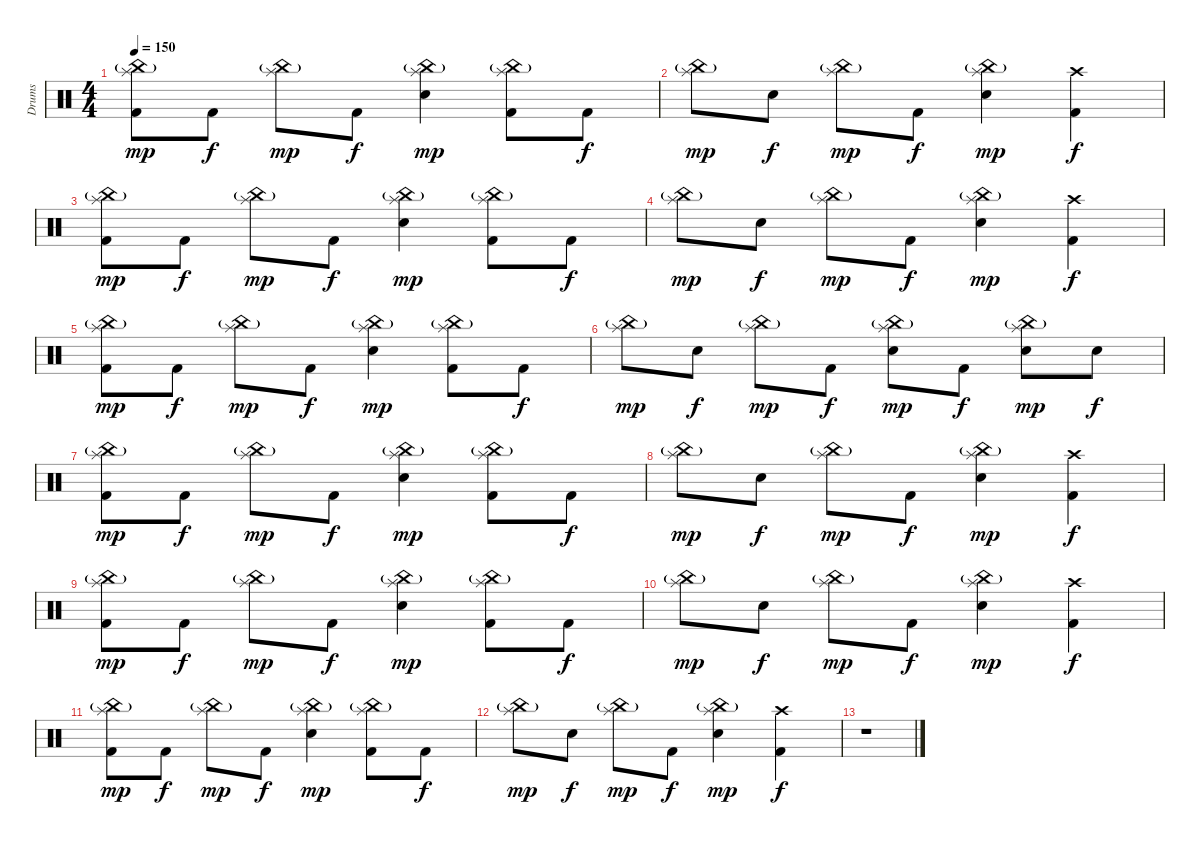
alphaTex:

\track ("Drums" "Drums") {instrument percussion}
\staff {score}
\articulation defaults
\ts (4 4)
\tempo 150
\clef neutral
\ks c
("Splash (hit)" "China (hit)"{g} "Kick (hit) 2").8{dy mp} "Kick (hit) 2".8{dy f} ("Splash (hit)" "China (hit)"{g}).8{dy mp} "Kick (hit) 2".8{dy f} ("Splash (hit)" "China (hit)"{g} "Electric Snare (hit)").4{dy mp} ("Splash (hit)" "China (hit)"{g} "Kick (hit) 2").8 "Kick (hit) 2".8{dy f} |
("Splash (hit)" "China (hit)"{g}).8{dy mp} "Electric Snare (hit)".8{dy f} ("China (hit)"{g} "Splash (hit)").8{dy mp} "Kick (hit) 2".8{dy f} ("Splash (hit)" "China (hit)"{g} "Electric Snare (hit)").4{dy mp} ("Kick (hit) 2" "Crash high (hit)").4{dy f} |
("Splash (hit)" "China (hit)"{g} "Kick (hit) 2").8{dy mp} "Kick (hit) 2".8{dy f} ("Splash (hit)" "China (hit)"{g}).8{dy mp} "Kick (hit) 2".8{dy f} ("Splash (hit)" "China (hit)"{g} "Electric Snare (hit)").4{dy mp} ("Splash (hit)" "China (hit)"{g} "Kick (hit) 2").8 "Kick (hit) 2".8{dy f} |
("Splash (hit)" "China (hit)"{g}).8{dy mp} "Electric Snare (hit)".8{dy f} ("China (hit)"{g} "Splash (hit)").8{dy mp} "Kick (hit) 2".8{dy f} ("Splash (hit)" "China (hit)"{g} "Electric Snare (hit)").4{dy mp} ("Kick (hit) 2" "Crash high (hit)").4{dy f} |
("Splash (hit)" "China (hit)"{g} "Kick (hit) 2").8{dy mp} "Kick (hit) 2".8{dy f} ("Splash (hit)" "China (hit)"{g}).8{dy mp} "Kick (hit) 2".8{dy f} ("Splash (hit)" "China (hit)"{g} "Electric Snare (hit)").4{dy mp} ("Splash (hit)" "China (hit)"{g} "Kick (hit) 2").8 "Kick (hit) 2".8{dy f} |
("Splash (hit)" "China (hit)"{g}).8{dy mp} "Electric Snare (hit)".8{dy f} ("Splash (hit)" "China (hit)"{g}).8{dy mp} "Kick (hit) 2".8{dy f} ("Splash (hit)" "China (hit)"{g} "Electric Snare (hit)").8{dy mp} "Kick (hit) 2".8{dy f} ("Splash (hit)" "China (hit)"{g} "Electric Snare (hit)").8{dy mp} "Electric Snare (hit)".8{dy f} |
("Splash (hit)" "China (hit)"{g} "Kick (hit) 2").8{dy mp} "Kick (hit) 2".8{dy f} ("Splash (hit)" "China (hit)"{g}).8{dy mp} "Kick (hit) 2".8{dy f} ("Splash (hit)" "China (hit)"{g} "Electric Snare (hit)").4{dy mp} ("Splash (hit)" "China (hit)"{g} "Kick (hit) 2").8 "Kick (hit) 2".8{dy f} |
("Splash (hit)" "China (hit)"{g}).8{dy mp} "Electric Snare (hit)".8{dy f} ("China (hit)"{g} "Splash (hit)").8{dy mp} "Kick (hit) 2".8{dy f} ("Splash (hit)" "China (hit)"{g} "Electric Snare (hit)").4{dy mp} ("Kick (hit) 2" "Crash high (hit)").4{dy f} |
("Splash (hit)" "China (hit)"{g} "Kick (hit) 2").8{dy mp} "Kick (hit) 2".8{dy f} ("Splash (hit)" "China (hit)"{g}).8{dy mp} "Kick (hit) 2".8{dy f} ("Splash (hit)" "China (hit)"{g} "Electric Snare (hit)").4{dy mp} ("Splash (hit)" "China (hit)"{g} "Kick (hit) 2").8 "Kick (hit) 2".8{dy f} |
("Splash (hit)" "China (hit)"{g}).8{dy mp} "Electric Snare (hit)".8{dy f} ("China (hit)"{g} "Splash (hit)").8{dy mp} "Kick (hit) 2".8{dy f} ("Splash (hit)" "China (hit)"{g} "Electric Snare (hit)").4{dy mp} ("Kick (hit) 2" "Crash high (hit)").4{dy f} |
("Splash (hit)" "China (hit)"{g} "Kick (hit) 2").8{dy mp} "Kick (hit) 2".8{dy f} ("Splash (hit)" "China (hit)"{g}).8{dy mp} "Kick (hit) 2".8{dy f} ("Splash (hit)" "China (hit)"{g} "Electric Snare (hit)").4{dy mp} ("Splash (hit)" "China (hit)"{g} "Kick (hit) 2").8 "Kick (hit) 2".8{dy f} |
("Splash (hit)" "China (hit)"{g}).8{dy mp} "Electric Snare (hit)".8{dy f} ("China (hit)"{g} "Splash (hit)").8{dy mp} "Kick (hit) 2".8{dy f} ("Splash (hit)" "China (hit)"{g} "Electric Snare (hit)").4{dy mp} ("Kick (hit) 2" "Crash high (hit)").4{dy f} |
r.1
